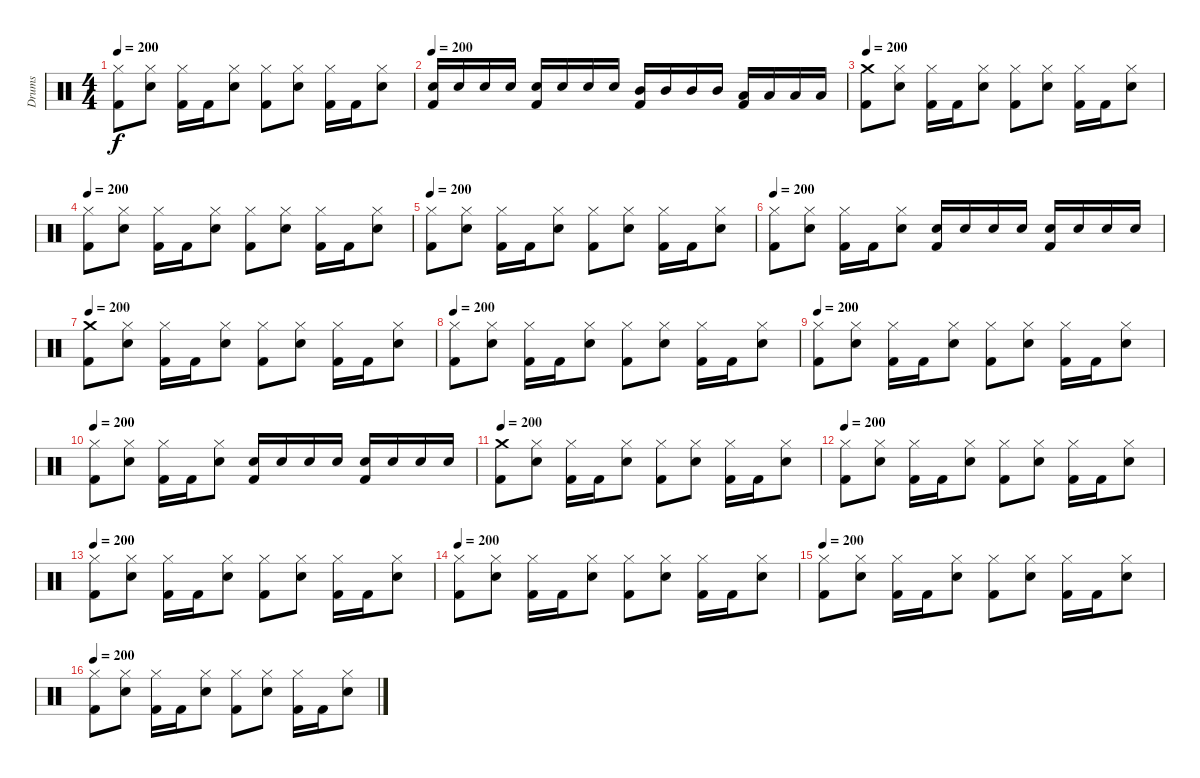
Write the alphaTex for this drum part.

\track ("Drums" "Drums") {instrument percussion}
\staff {score}
\articulation defaults
\ts (4 4)
\tempo 200
\clef neutral
\ks c
("Hi-Hat (closed)" "Kick (hit) 2").8{dy f} ("Hi-Hat (closed)" "Snare (hit) 2").8 ("Hi-Hat (closed)" "Kick (hit) 2").16 "Kick (hit) 2".16 ("Hi-Hat (closed)" "Snare (hit) 2").8 ("Hi-Hat (closed)" "Kick (hit) 2").8 ("Hi-Hat (closed)" "Snare (hit) 2").8 ("Hi-Hat (closed)" "Kick (hit) 2").16 "Kick (hit) 2".16 ("Hi-Hat (closed)" "Snare (hit) 2").8 |
\tempo 200
("Snare (hit) 2" "Kick (hit) 2").16 "Snare (hit) 2".16 "Snare (hit) 2".16 "Snare (hit) 2".16 ("Snare (hit) 2" "Kick (hit) 2").16 "Snare (hit) 2".16 "Snare (hit) 2".16 "Snare (hit) 2".16 ("Mid Tom (hit)" "Kick (hit) 2").16 "Mid Tom (hit)".16 "Mid Tom (hit)".16 "Mid Tom (hit)".16 ("Low Tom (hit)" "Kick (hit) 2").16 "Low Tom (hit)".16 "Low Tom (hit)".16 "Low Tom (hit)".16 |
\tempo 200
("Crash medium (hit)" "Kick (hit) 2").8 ("Hi-Hat (closed)" "Snare (hit) 2").8 ("Hi-Hat (closed)" "Kick (hit) 2").16 "Kick (hit) 2".16 ("Hi-Hat (closed)" "Snare (hit) 2").8 ("Hi-Hat (closed)" "Kick (hit) 2").8 ("Hi-Hat (closed)" "Snare (hit) 2").8 ("Hi-Hat (closed)" "Kick (hit) 2").16 "Kick (hit) 2".16 ("Hi-Hat (closed)" "Snare (hit) 2").8 |
\tempo 200
("Hi-Hat (closed)" "Kick (hit) 2").8 ("Hi-Hat (closed)" "Snare (hit) 2").8 ("Hi-Hat (closed)" "Kick (hit) 2").16 "Kick (hit) 2".16 ("Hi-Hat (closed)" "Snare (hit) 2").8 ("Hi-Hat (closed)" "Kick (hit) 2").8 ("Hi-Hat (closed)" "Snare (hit) 2").8 ("Hi-Hat (closed)" "Kick (hit) 2").16 "Kick (hit) 2".16 ("Hi-Hat (closed)" "Snare (hit) 2").8 |
\tempo 200
("Hi-Hat (closed)" "Kick (hit) 2").8 ("Hi-Hat (closed)" "Snare (hit) 2").8 ("Hi-Hat (closed)" "Kick (hit) 2").16 "Kick (hit) 2".16 ("Hi-Hat (closed)" "Snare (hit) 2").8 ("Hi-Hat (closed)" "Kick (hit) 2").8 ("Hi-Hat (closed)" "Snare (hit) 2").8 ("Hi-Hat (closed)" "Kick (hit) 2").16 "Kick (hit) 2".16 ("Hi-Hat (closed)" "Snare (hit) 2").8 |
\tempo 200
("Hi-Hat (closed)" "Kick (hit) 2").8 ("Hi-Hat (closed)" "Snare (hit) 2").8 ("Hi-Hat (closed)" "Kick (hit) 2").16 "Kick (hit) 2".16 ("Hi-Hat (closed)" "Snare (hit) 2").8 ("Snare (hit) 2" "Kick (hit) 2").16 "Snare (hit) 2".16 "Snare (hit) 2".16 "Snare (hit) 2".16 ("Snare (hit) 2" "Kick (hit) 2").16 "Snare (hit) 2".16 "Snare (hit) 2".16 "Snare (hit) 2".16 |
\tempo 200
("Crash medium (hit)" "Kick (hit) 2").8 ("Hi-Hat (closed)" "Snare (hit) 2").8 ("Hi-Hat (closed)" "Kick (hit) 2").16 "Kick (hit) 2".16 ("Hi-Hat (closed)" "Snare (hit) 2").8 ("Hi-Hat (closed)" "Kick (hit) 2").8 ("Hi-Hat (closed)" "Snare (hit) 2").8 ("Hi-Hat (closed)" "Kick (hit) 2").16 "Kick (hit) 2".16 ("Hi-Hat (closed)" "Snare (hit) 2").8 |
\tempo 200
("Hi-Hat (closed)" "Kick (hit) 2").8 ("Hi-Hat (closed)" "Snare (hit) 2").8 ("Hi-Hat (closed)" "Kick (hit) 2").16 "Kick (hit) 2".16 ("Hi-Hat (closed)" "Snare (hit) 2").8 ("Hi-Hat (closed)" "Kick (hit) 2").8 ("Hi-Hat (closed)" "Snare (hit) 2").8 ("Hi-Hat (closed)" "Kick (hit) 2").16 "Kick (hit) 2".16 ("Hi-Hat (closed)" "Snare (hit) 2").8 |
\tempo 200
("Hi-Hat (closed)" "Kick (hit) 2").8 ("Hi-Hat (closed)" "Snare (hit) 2").8 ("Hi-Hat (closed)" "Kick (hit) 2").16 "Kick (hit) 2".16 ("Hi-Hat (closed)" "Snare (hit) 2").8 ("Hi-Hat (closed)" "Kick (hit) 2").8 ("Hi-Hat (closed)" "Snare (hit) 2").8 ("Hi-Hat (closed)" "Kick (hit) 2").16 "Kick (hit) 2".16 ("Hi-Hat (closed)" "Snare (hit) 2").8 |
\tempo 200
("Hi-Hat (closed)" "Kick (hit) 2").8 ("Hi-Hat (closed)" "Snare (hit) 2").8 ("Hi-Hat (closed)" "Kick (hit) 2").16 "Kick (hit) 2".16 ("Hi-Hat (closed)" "Snare (hit) 2").8 ("Snare (hit) 2" "Kick (hit) 2").16 "Snare (hit) 2".16 "Snare (hit) 2".16 "Snare (hit) 2".16 ("Snare (hit) 2" "Kick (hit) 2").16 "Snare (hit) 2".16 "Snare (hit) 2".16 "Snare (hit) 2".16 |
\tempo 200
("Crash medium (hit)" "Kick (hit) 2").8 ("Hi-Hat (closed)" "Snare (hit) 2").8 ("Hi-Hat (closed)" "Kick (hit) 2").16 "Kick (hit) 2".16 ("Hi-Hat (closed)" "Snare (hit) 2").8 ("Hi-Hat (closed)" "Kick (hit) 2").8 ("Hi-Hat (closed)" "Snare (hit) 2").8 ("Hi-Hat (closed)" "Kick (hit) 2").16 "Kick (hit) 2".16 ("Hi-Hat (closed)" "Snare (hit) 2").8 |
\tempo 200
("Hi-Hat (closed)" "Kick (hit) 2").8 ("Hi-Hat (closed)" "Snare (hit) 2").8 ("Hi-Hat (closed)" "Kick (hit) 2").16 "Kick (hit) 2".16 ("Hi-Hat (closed)" "Snare (hit) 2").8 ("Hi-Hat (closed)" "Kick (hit) 2").8 ("Hi-Hat (closed)" "Snare (hit) 2").8 ("Hi-Hat (closed)" "Kick (hit) 2").16 "Kick (hit) 2".16 ("Hi-Hat (closed)" "Snare (hit) 2").8 |
\tempo 200
("Hi-Hat (closed)" "Kick (hit) 2").8 ("Hi-Hat (closed)" "Snare (hit) 2").8 ("Hi-Hat (closed)" "Kick (hit) 2").16 "Kick (hit) 2".16 ("Hi-Hat (closed)" "Snare (hit) 2").8 ("Hi-Hat (closed)" "Kick (hit) 2").8 ("Hi-Hat (closed)" "Snare (hit) 2").8 ("Hi-Hat (closed)" "Kick (hit) 2").16 "Kick (hit) 2".16 ("Hi-Hat (closed)" "Snare (hit) 2").8 |
\tempo 200
("Hi-Hat (closed)" "Kick (hit) 2").8 ("Hi-Hat (closed)" "Snare (hit) 2").8 ("Hi-Hat (closed)" "Kick (hit) 2").16 "Kick (hit) 2".16 ("Hi-Hat (closed)" "Snare (hit) 2").8 ("Hi-Hat (closed)" "Kick (hit) 2").8 ("Hi-Hat (closed)" "Snare (hit) 2").8 ("Hi-Hat (closed)" "Kick (hit) 2").16 "Kick (hit) 2".16 ("Hi-Hat (closed)" "Snare (hit) 2").8 |
\tempo 200
("Hi-Hat (closed)" "Kick (hit) 2").8 ("Hi-Hat (closed)" "Snare (hit) 2").8 ("Hi-Hat (closed)" "Kick (hit) 2").16 "Kick (hit) 2".16 ("Hi-Hat (closed)" "Snare (hit) 2").8 ("Hi-Hat (closed)" "Kick (hit) 2").8 ("Hi-Hat (closed)" "Snare (hit) 2").8 ("Hi-Hat (closed)" "Kick (hit) 2").16 "Kick (hit) 2".16 ("Hi-Hat (closed)" "Snare (hit) 2").8 |
\tempo 200
("Hi-Hat (closed)" "Kick (hit) 2").8 ("Hi-Hat (closed)" "Snare (hit) 2").8 ("Hi-Hat (closed)" "Kick (hit) 2").16 "Kick (hit) 2".16 ("Hi-Hat (closed)" "Snare (hit) 2").8 ("Hi-Hat (closed)" "Kick (hit) 2").8 ("Hi-Hat (closed)" "Snare (hit) 2").8 ("Hi-Hat (closed)" "Kick (hit) 2").16 "Kick (hit) 2".16 ("Hi-Hat (closed)" "Snare (hit) 2").8
